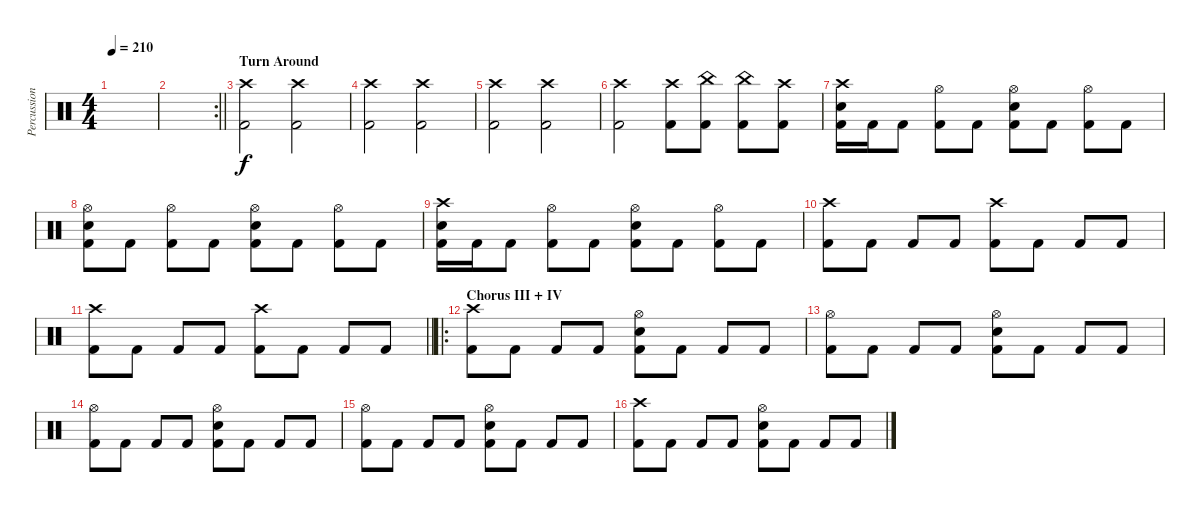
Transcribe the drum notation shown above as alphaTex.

\track ("Percussion" "Percussion") {instrument percussion}
\staff {score}
\articulation defaults
\ts (4 4)
\tempo 210
\clef neutral
\ks c
|
\rc 2
\barLineRight lightlight
|
\section ("" "Turn Around")
("Crash high (hit)" "Kick (hit) 2").2 ("Crash high (hit)" "Kick (hit) 2").2 |
("Crash high (hit)" "Kick (hit) 2").2 ("Crash high (hit)" "Kick (hit) 2").2 |
("Crash high (hit)" "Kick (hit) 2").2 ("Crash high (hit)" "Kick (hit) 2").2 |
("Crash high (hit)" "Kick (hit) 2").2 ("Crash high (hit)" "Kick (hit) 2").8 ("China (hit)" "Kick (hit) 2").8 ("China (hit)" "Kick (hit) 2").8 ("Crash high (hit)" "Kick (hit) 2").8 |
("Crash high (hit)" "Snare (hit) 2" "Kick (hit) 2").16 "Kick (hit) 2".16 "Kick (hit) 2".8 ("Hi-Hat (open)" "Kick (hit) 2").8 "Kick (hit) 2".8 ("Hi-Hat (open)" "Snare (hit) 2" "Kick (hit) 2").8 "Kick (hit) 2".8 ("Hi-Hat (open)" "Kick (hit) 2").8 "Kick (hit) 2".8 |
("Hi-Hat (open)" "Snare (hit) 2" "Kick (hit) 2").8 "Kick (hit) 2".8 ("Hi-Hat (open)" "Kick (hit) 2").8 "Kick (hit) 2".8 ("Hi-Hat (open)" "Snare (hit) 2" "Kick (hit) 2").8 "Kick (hit) 2".8 ("Hi-Hat (open)" "Kick (hit) 2").8 "Kick (hit) 2".8 |
("Crash high (hit)" "Snare (hit) 2" "Kick (hit) 2").16 "Kick (hit) 2".16 "Kick (hit) 2".8 ("Hi-Hat (open)" "Kick (hit) 2").8 "Kick (hit) 2".8 ("Hi-Hat (open)" "Snare (hit) 2" "Kick (hit) 2").8 "Kick (hit) 2".8 ("Hi-Hat (open)" "Kick (hit) 2").8 "Kick (hit) 2".8 |
("Crash high (hit)" "Kick (hit) 2").8 "Kick (hit) 2".8 "Kick (hit) 2".8 "Kick (hit) 2".8 ("Crash high (hit)" "Kick (hit) 2").8 "Kick (hit) 2".8 "Kick (hit) 2".8 "Kick (hit) 2".8 |
\barLineRight lightlight
("Crash high (hit)" "Kick (hit) 2").8 "Kick (hit) 2".8 "Kick (hit) 2".8 "Kick (hit) 2".8 ("Crash high (hit)" "Kick (hit) 2").8 "Kick (hit) 2".8 "Kick (hit) 2".8 "Kick (hit) 2".8 |
\ro
\section ("" "Chorus III + IV")
("Crash high (hit)" "Kick (hit) 2").8 "Kick (hit) 2".8 "Kick (hit) 2".8 "Kick (hit) 2".8 ("Hi-Hat (open)" "Snare (hit) 2" "Kick (hit) 2").8 "Kick (hit) 2".8 "Kick (hit) 2".8 "Kick (hit) 2".8 |
("Hi-Hat (open)" "Kick (hit) 2").8 "Kick (hit) 2".8 "Kick (hit) 2".8 "Kick (hit) 2".8 ("Hi-Hat (open)" "Snare (hit) 2" "Kick (hit) 2").8 "Kick (hit) 2".8 "Kick (hit) 2".8 "Kick (hit) 2".8 |
("Hi-Hat (open)" "Kick (hit) 2").8 "Kick (hit) 2".8 "Kick (hit) 2".8 "Kick (hit) 2".8 ("Hi-Hat (open)" "Snare (hit) 2" "Kick (hit) 2").8 "Kick (hit) 2".8 "Kick (hit) 2".8 "Kick (hit) 2".8 |
("Hi-Hat (open)" "Kick (hit) 2").8 "Kick (hit) 2".8 "Kick (hit) 2".8 "Kick (hit) 2".8 ("Hi-Hat (open)" "Snare (hit) 2" "Kick (hit) 2").8 "Kick (hit) 2".8 "Kick (hit) 2".8 "Kick (hit) 2".8 |
("Crash high (hit)" "Kick (hit) 2").8 "Kick (hit) 2".8 "Kick (hit) 2".8 "Kick (hit) 2".8 ("Hi-Hat (open)" "Snare (hit) 2" "Kick (hit) 2").8 "Kick (hit) 2".8 "Kick (hit) 2".8 "Kick (hit) 2".8
